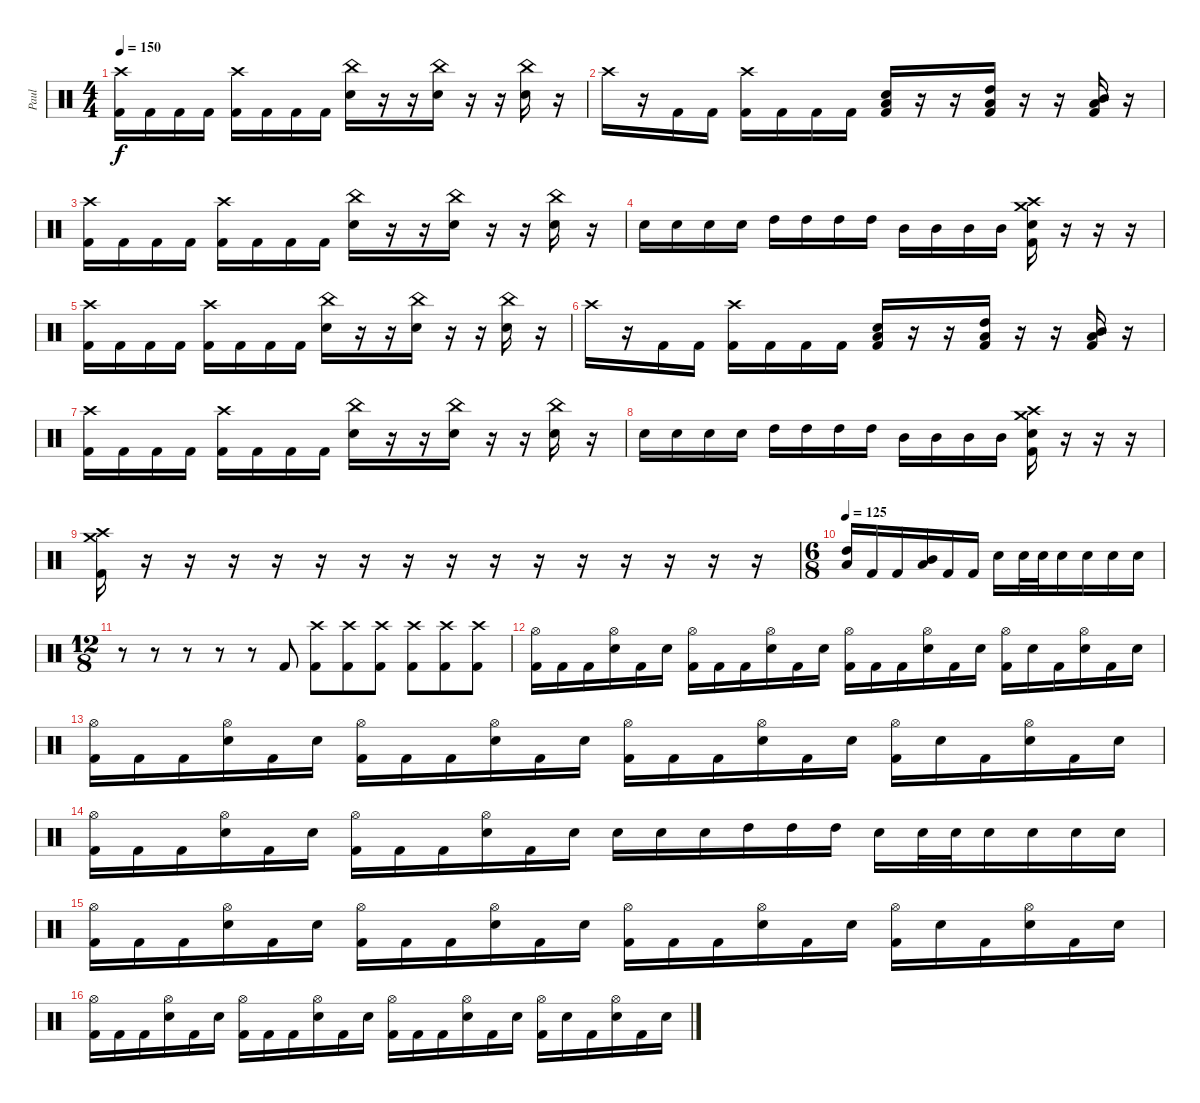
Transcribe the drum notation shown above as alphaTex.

\track ("Paul" "Paul") {instrument percussion}
\staff {score}
\articulation defaults
\ts (4 4)
\tempo 150
\clef neutral
\ks c
("Crash high (hit)" "Kick (hit) 2").16{dy f} "Kick (hit) 2".16 "Kick (hit) 2".16 "Kick (hit) 2".16 ("Crash high (hit)" "Kick (hit) 2").16 "Kick (hit) 2".16 "Kick (hit) 2".16 "Kick (hit) 2".16 ("China (hit)" "Electric Snare (hit)").16 r.16 r.16 ("China (hit)" "Electric Snare (hit)").16 r.16 r.16 ("China (hit)" "Electric Snare (hit)").16 r.16 |
"Crash high (hit)".16 r.16 "Kick (hit) 2".16 "Kick (hit) 2".16 ("Crash high (hit)" "Kick (hit) 2").16 "Kick (hit) 2".16 "Kick (hit) 2".16 "Kick (hit) 2".16 ("Electric Snare (hit)" "Low Tom (hit)" "Kick (hit) 2").16 r.16 r.16 ("High Tom (hit)" "Low Tom (hit)" "Kick (hit) 2").16 r.16 r.16 ("Mid Tom (hit)" "Low Tom (hit)" "Kick (hit) 2").16 r.16 |
("Crash high (hit)" "Kick (hit) 2").16 "Kick (hit) 2".16 "Kick (hit) 2".16 "Kick (hit) 2".16 ("Crash high (hit)" "Kick (hit) 2").16 "Kick (hit) 2".16 "Kick (hit) 2".16 "Kick (hit) 2".16 ("China (hit)" "Electric Snare (hit)").16 r.16 r.16 ("China (hit)" "Electric Snare (hit)").16 r.16 r.16 ("China (hit)" "Electric Snare (hit)").16 r.16 |
"Electric Snare (hit)".16 "Electric Snare (hit)".16 "Electric Snare (hit)".16 "Electric Snare (hit)".16 "High Tom (hit)".16 "High Tom (hit)".16 "High Tom (hit)".16 "High Tom (hit)".16 "Mid Tom (hit)".16 "Mid Tom (hit)".16 "Mid Tom (hit)".16 "Mid Tom (hit)".16 ("Crash high (hit)" "Crash medium (hit)" "Electric Snare (hit)" "Kick (hit) 2").16 r.16 r.16 r.16 |
("Crash high (hit)" "Kick (hit) 2").16 "Kick (hit) 2".16 "Kick (hit) 2".16 "Kick (hit) 2".16 ("Crash high (hit)" "Kick (hit) 2").16 "Kick (hit) 2".16 "Kick (hit) 2".16 "Kick (hit) 2".16 ("China (hit)" "Electric Snare (hit)").16 r.16 r.16 ("China (hit)" "Electric Snare (hit)").16 r.16 r.16 ("China (hit)" "Electric Snare (hit)").16 r.16 |
"Crash high (hit)".16 r.16 "Kick (hit) 2".16 "Kick (hit) 2".16 ("Crash high (hit)" "Kick (hit) 2").16 "Kick (hit) 2".16 "Kick (hit) 2".16 "Kick (hit) 2".16 ("Electric Snare (hit)" "Low Tom (hit)" "Kick (hit) 2").16 r.16 r.16 ("High Tom (hit)" "Low Tom (hit)" "Kick (hit) 2").16 r.16 r.16 ("Mid Tom (hit)" "Low Tom (hit)" "Kick (hit) 2").16 r.16 |
("Crash high (hit)" "Kick (hit) 2").16 "Kick (hit) 2".16 "Kick (hit) 2".16 "Kick (hit) 2".16 ("Crash high (hit)" "Kick (hit) 2").16 "Kick (hit) 2".16 "Kick (hit) 2".16 "Kick (hit) 2".16 ("China (hit)" "Electric Snare (hit)").16 r.16 r.16 ("China (hit)" "Electric Snare (hit)").16 r.16 r.16 ("China (hit)" "Electric Snare (hit)").16 r.16 |
"Electric Snare (hit)".16 "Electric Snare (hit)".16 "Electric Snare (hit)".16 "Electric Snare (hit)".16 "High Tom (hit)".16 "High Tom (hit)".16 "High Tom (hit)".16 "High Tom (hit)".16 "Mid Tom (hit)".16 "Mid Tom (hit)".16 "Mid Tom (hit)".16 "Mid Tom (hit)".16 ("Crash high (hit)" "Crash medium (hit)" "Electric Snare (hit)" "Kick (hit) 2").16 r.16 r.16 r.16 |
("Crash high (hit)" "Crash medium (hit)" "Kick (hit) 2").16 r.16 r.16 r.16 r.16 r.16 r.16 r.16 r.16 r.16 r.16 r.16 r.16 r.16 r.16 r.16 |
\ts (6 8)
\tempo 125
("Low Tom (hit)" "High Tom (hit)").16 "Kick (hit) 2".16 "Kick (hit) 2".16 ("Mid Tom (hit)" "Low Tom (hit)").16 "Kick (hit) 2".16 "Kick (hit) 2".16 "Electric Snare (hit)".16 "Electric Snare (hit)".32 "Electric Snare (hit)".32 "Electric Snare (hit)".16 "Electric Snare (hit)".16 "Electric Snare (hit)".16 "Electric Snare (hit)".16 |
\ts (12 8)
r.8 r.8 r.8 r.8 r.8 "Kick (hit) 2".8 ("Crash high (hit)" "Kick (hit) 2").8 ("Crash high (hit)" "Kick (hit) 2").8 ("Crash high (hit)" "Kick (hit) 2").8 ("Crash high (hit)" "Kick (hit) 2").8 ("Crash high (hit)" "Kick (hit) 2").8 ("Crash high (hit)" "Kick (hit) 2").8 |
("Hi-Hat (open)" "Kick (hit) 2").16 "Kick (hit) 2".16 "Kick (hit) 2".16 ("Hi-Hat (open)" "Electric Snare (hit)").16 "Kick (hit) 2".16 "Electric Snare (hit)".16 ("Hi-Hat (open)" "Kick (hit) 2").16 "Kick (hit) 2".16 "Kick (hit) 2".16 ("Hi-Hat (open)" "Electric Snare (hit)").16 "Kick (hit) 2".16 "Electric Snare (hit)".16 ("Hi-Hat (open)" "Kick (hit) 2").16 "Kick (hit) 2".16 "Kick (hit) 2".16 ("Hi-Hat (open)" "Electric Snare (hit)").16 "Kick (hit) 2".16 "Electric Snare (hit)".16 ("Hi-Hat (open)" "Kick (hit) 2").16 "Electric Snare (hit)".16 "Kick (hit) 2".16 ("Hi-Hat (open)" "Electric Snare (hit)").16 "Kick (hit) 2".16 "Electric Snare (hit)".16 |
("Hi-Hat (open)" "Kick (hit) 2").16 "Kick (hit) 2".16 "Kick (hit) 2".16 ("Hi-Hat (open)" "Electric Snare (hit)").16 "Kick (hit) 2".16 "Electric Snare (hit)".16 ("Hi-Hat (open)" "Kick (hit) 2").16 "Kick (hit) 2".16 "Kick (hit) 2".16 ("Hi-Hat (open)" "Electric Snare (hit)").16 "Kick (hit) 2".16 "Electric Snare (hit)".16 ("Hi-Hat (open)" "Kick (hit) 2").16 "Kick (hit) 2".16 "Kick (hit) 2".16 ("Hi-Hat (open)" "Electric Snare (hit)").16 "Kick (hit) 2".16 "Electric Snare (hit)".16 ("Hi-Hat (open)" "Kick (hit) 2").16 "Electric Snare (hit)".16 "Kick (hit) 2".16 ("Hi-Hat (open)" "Electric Snare (hit)").16 "Kick (hit) 2".16 "Electric Snare (hit)".16 |
("Hi-Hat (open)" "Kick (hit) 2").16 "Kick (hit) 2".16 "Kick (hit) 2".16 ("Hi-Hat (open)" "Electric Snare (hit)").16 "Kick (hit) 2".16 "Electric Snare (hit)".16 ("Hi-Hat (open)" "Kick (hit) 2").16 "Kick (hit) 2".16 "Kick (hit) 2".16 ("Hi-Hat (open)" "Electric Snare (hit)").16 "Kick (hit) 2".16 "Electric Snare (hit)".16 "Electric Snare (hit)".16 "Electric Snare (hit)".16 "Electric Snare (hit)".16 "High Tom (hit)".16 "High Tom (hit)".16 "High Tom (hit)".16 "Electric Snare (hit)".16 "Electric Snare (hit)".32 "Electric Snare (hit)".32 "Electric Snare (hit)".16 "Electric Snare (hit)".16 "Electric Snare (hit)".16 "Electric Snare (hit)".16 |
("Hi-Hat (open)" "Kick (hit) 2").16 "Kick (hit) 2".16 "Kick (hit) 2".16 ("Hi-Hat (open)" "Electric Snare (hit)").16 "Kick (hit) 2".16 "Electric Snare (hit)".16 ("Hi-Hat (open)" "Kick (hit) 2").16 "Kick (hit) 2".16 "Kick (hit) 2".16 ("Hi-Hat (open)" "Electric Snare (hit)").16 "Kick (hit) 2".16 "Electric Snare (hit)".16 ("Hi-Hat (open)" "Kick (hit) 2").16 "Kick (hit) 2".16 "Kick (hit) 2".16 ("Hi-Hat (open)" "Electric Snare (hit)").16 "Kick (hit) 2".16 "Electric Snare (hit)".16 ("Hi-Hat (open)" "Kick (hit) 2").16 "Electric Snare (hit)".16 "Kick (hit) 2".16 ("Hi-Hat (open)" "Electric Snare (hit)").16 "Kick (hit) 2".16 "Electric Snare (hit)".16 |
("Hi-Hat (open)" "Kick (hit) 2").16 "Kick (hit) 2".16 "Kick (hit) 2".16 ("Hi-Hat (open)" "Electric Snare (hit)").16 "Kick (hit) 2".16 "Electric Snare (hit)".16 ("Hi-Hat (open)" "Kick (hit) 2").16 "Kick (hit) 2".16 "Kick (hit) 2".16 ("Hi-Hat (open)" "Electric Snare (hit)").16 "Kick (hit) 2".16 "Electric Snare (hit)".16 ("Hi-Hat (open)" "Kick (hit) 2").16 "Kick (hit) 2".16 "Kick (hit) 2".16 ("Hi-Hat (open)" "Electric Snare (hit)").16 "Kick (hit) 2".16 "Electric Snare (hit)".16 ("Hi-Hat (open)" "Kick (hit) 2").16 "Electric Snare (hit)".16 "Kick (hit) 2".16 ("Hi-Hat (open)" "Electric Snare (hit)").16 "Kick (hit) 2".16 "Electric Snare (hit)".16
